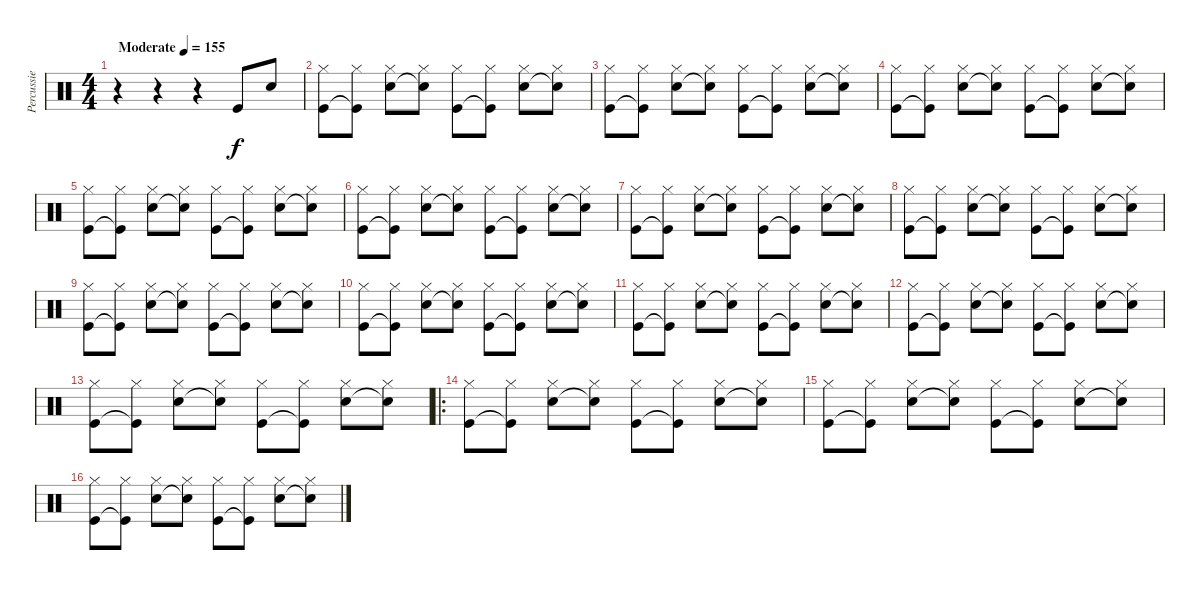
\track ("Percussie" "Percussie") {instrument percussion}
\staff {score}
\articulation defaults
\ts (4 4)
\tempo (155 "Moderate")
\clef neutral
\ks c
r.4{dy f} r.4 r.4 "Kick (hit)".8 "Snare (hit) 2".8 |
("Hi-Hat (closed)" "Kick (hit)").8 ("Hi-Hat (closed)" "Kick (hit)"{t}).8 ("Hi-Hat (closed)" "Snare (hit) 2").8 ("Hi-Hat (closed)" "Snare (hit) 2"{t}).8 ("Hi-Hat (closed)" "Kick (hit)").8 ("Hi-Hat (closed)" "Kick (hit)"{t}).8 ("Hi-Hat (closed)" "Snare (hit) 2").8 ("Hi-Hat (closed)" "Snare (hit) 2"{t}).8 |
("Hi-Hat (closed)" "Kick (hit)").8 ("Hi-Hat (closed)" "Kick (hit)"{t}).8 ("Hi-Hat (closed)" "Snare (hit) 2").8 ("Hi-Hat (closed)" "Snare (hit) 2"{t}).8 ("Hi-Hat (closed)" "Kick (hit)").8 ("Hi-Hat (closed)" "Kick (hit)"{t}).8 ("Hi-Hat (closed)" "Snare (hit) 2").8 ("Hi-Hat (closed)" "Snare (hit) 2"{t}).8 |
("Hi-Hat (closed)" "Kick (hit)").8 ("Hi-Hat (closed)" "Kick (hit)"{t}).8 ("Hi-Hat (closed)" "Snare (hit) 2").8 ("Hi-Hat (closed)" "Snare (hit) 2"{t}).8 ("Hi-Hat (closed)" "Kick (hit)").8 ("Hi-Hat (closed)" "Kick (hit)"{t}).8 ("Hi-Hat (closed)" "Snare (hit) 2").8 ("Hi-Hat (closed)" "Snare (hit) 2"{t}).8 |
("Hi-Hat (closed)" "Kick (hit)").8 ("Hi-Hat (closed)" "Kick (hit)"{t}).8 ("Hi-Hat (closed)" "Snare (hit) 2").8 ("Hi-Hat (closed)" "Snare (hit) 2"{t}).8 ("Hi-Hat (closed)" "Kick (hit)").8 ("Hi-Hat (closed)" "Kick (hit)"{t}).8 ("Hi-Hat (closed)" "Snare (hit) 2").8 ("Hi-Hat (closed)" "Snare (hit) 2"{t}).8 |
("Hi-Hat (closed)" "Kick (hit)").8 ("Hi-Hat (closed)" "Kick (hit)"{t}).8 ("Hi-Hat (closed)" "Snare (hit) 2").8 ("Hi-Hat (closed)" "Snare (hit) 2"{t}).8 ("Hi-Hat (closed)" "Kick (hit)").8 ("Hi-Hat (closed)" "Kick (hit)"{t}).8 ("Hi-Hat (closed)" "Snare (hit) 2").8 ("Hi-Hat (closed)" "Snare (hit) 2"{t}).8 |
("Hi-Hat (closed)" "Kick (hit)").8 ("Hi-Hat (closed)" "Kick (hit)"{t}).8 ("Hi-Hat (closed)" "Snare (hit) 2").8 ("Hi-Hat (closed)" "Snare (hit) 2"{t}).8 ("Hi-Hat (closed)" "Kick (hit)").8 ("Hi-Hat (closed)" "Kick (hit)"{t}).8 ("Hi-Hat (closed)" "Snare (hit) 2").8 ("Hi-Hat (closed)" "Snare (hit) 2"{t}).8 |
("Hi-Hat (closed)" "Kick (hit)").8 ("Hi-Hat (closed)" "Kick (hit)"{t}).8 ("Hi-Hat (closed)" "Snare (hit) 2").8 ("Hi-Hat (closed)" "Snare (hit) 2"{t}).8 ("Hi-Hat (closed)" "Kick (hit)").8 ("Hi-Hat (closed)" "Kick (hit)"{t}).8 ("Hi-Hat (closed)" "Snare (hit) 2").8 ("Hi-Hat (closed)" "Snare (hit) 2"{t}).8 |
("Hi-Hat (closed)" "Kick (hit)").8 ("Hi-Hat (closed)" "Kick (hit)"{t}).8 ("Hi-Hat (closed)" "Snare (hit) 2").8 ("Hi-Hat (closed)" "Snare (hit) 2"{t}).8 ("Hi-Hat (closed)" "Kick (hit)").8 ("Hi-Hat (closed)" "Kick (hit)"{t}).8 ("Hi-Hat (closed)" "Snare (hit) 2").8 ("Hi-Hat (closed)" "Snare (hit) 2"{t}).8 |
("Hi-Hat (closed)" "Kick (hit)").8 ("Hi-Hat (closed)" "Kick (hit)"{t}).8 ("Hi-Hat (closed)" "Snare (hit) 2").8 ("Hi-Hat (closed)" "Snare (hit) 2"{t}).8 ("Hi-Hat (closed)" "Kick (hit)").8 ("Hi-Hat (closed)" "Kick (hit)"{t}).8 ("Hi-Hat (closed)" "Snare (hit) 2").8 ("Hi-Hat (closed)" "Snare (hit) 2"{t}).8 |
("Hi-Hat (closed)" "Kick (hit)").8 ("Hi-Hat (closed)" "Kick (hit)"{t}).8 ("Hi-Hat (closed)" "Snare (hit) 2").8 ("Hi-Hat (closed)" "Snare (hit) 2"{t}).8 ("Hi-Hat (closed)" "Kick (hit)").8 ("Hi-Hat (closed)" "Kick (hit)"{t}).8 ("Hi-Hat (closed)" "Snare (hit) 2").8 ("Hi-Hat (closed)" "Snare (hit) 2"{t}).8 |
("Hi-Hat (closed)" "Kick (hit)").8 ("Hi-Hat (closed)" "Kick (hit)"{t}).8 ("Hi-Hat (closed)" "Snare (hit) 2").8 ("Hi-Hat (closed)" "Snare (hit) 2"{t}).8 ("Hi-Hat (closed)" "Kick (hit)").8 ("Hi-Hat (closed)" "Kick (hit)"{t}).8 ("Hi-Hat (closed)" "Snare (hit) 2").8 ("Hi-Hat (closed)" "Snare (hit) 2"{t}).8 |
("Hi-Hat (closed)" "Kick (hit)").8 ("Hi-Hat (closed)" "Kick (hit)"{t}).8 ("Hi-Hat (closed)" "Snare (hit) 2").8 ("Hi-Hat (closed)" "Snare (hit) 2"{t}).8 ("Hi-Hat (closed)" "Kick (hit)").8 ("Hi-Hat (closed)" "Kick (hit)"{t}).8 ("Hi-Hat (closed)" "Snare (hit) 2").8 ("Hi-Hat (closed)" "Snare (hit) 2"{t}).8 |
\ro
("Hi-Hat (closed)" "Kick (hit)").8 ("Hi-Hat (closed)" "Kick (hit)"{t}).8 ("Hi-Hat (closed)" "Snare (hit) 2").8 ("Hi-Hat (closed)" "Snare (hit) 2"{t}).8 ("Hi-Hat (closed)" "Kick (hit)").8 ("Hi-Hat (closed)" "Kick (hit)"{t}).8 ("Hi-Hat (closed)" "Snare (hit) 2").8 ("Hi-Hat (closed)" "Snare (hit) 2"{t}).8 |
("Hi-Hat (closed)" "Kick (hit)").8 ("Hi-Hat (closed)" "Kick (hit)"{t}).8 ("Hi-Hat (closed)" "Snare (hit) 2").8 ("Hi-Hat (closed)" "Snare (hit) 2"{t}).8 ("Hi-Hat (closed)" "Kick (hit)").8 ("Hi-Hat (closed)" "Kick (hit)"{t}).8 ("Hi-Hat (closed)" "Snare (hit) 2").8 ("Hi-Hat (closed)" "Snare (hit) 2"{t}).8 |
("Hi-Hat (closed)" "Kick (hit)").8 ("Hi-Hat (closed)" "Kick (hit)"{t}).8 ("Hi-Hat (closed)" "Snare (hit) 2").8 ("Hi-Hat (closed)" "Snare (hit) 2"{t}).8 ("Hi-Hat (closed)" "Kick (hit)").8 ("Hi-Hat (closed)" "Kick (hit)"{t}).8 ("Hi-Hat (closed)" "Snare (hit) 2").8 ("Hi-Hat (closed)" "Snare (hit) 2"{t}).8
